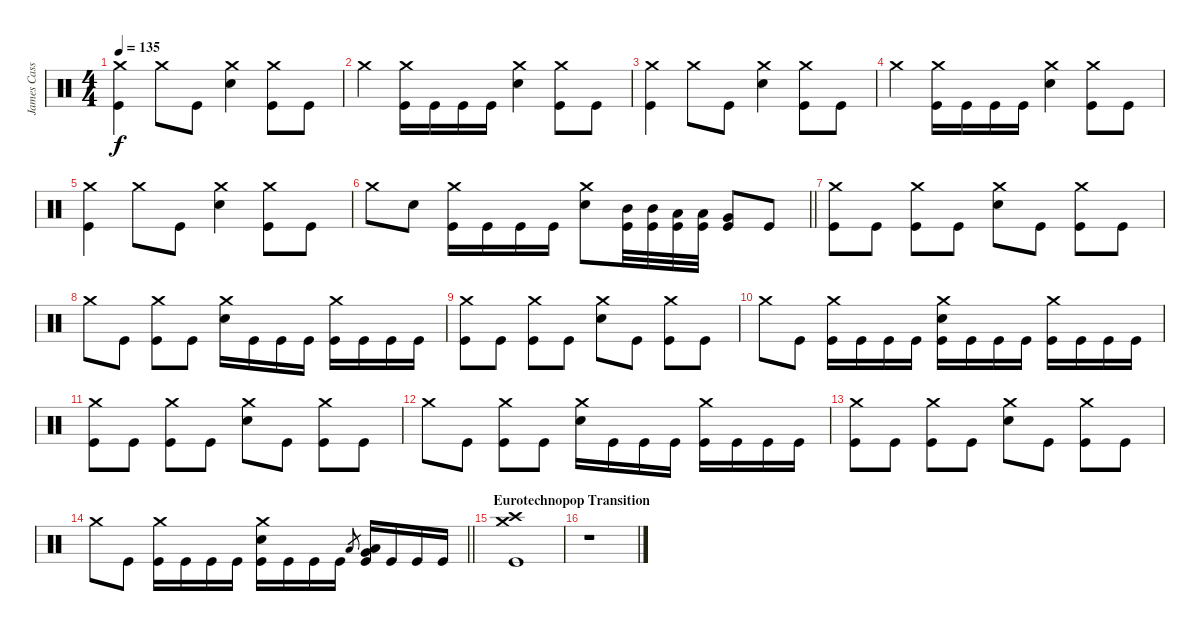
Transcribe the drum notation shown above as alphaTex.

\track ("James Cassells" "James Cass") {instrument percussion}
\staff {score}
\articulation defaults
\ts (4 4)
\tempo 135
\clef neutral
\ks c
("Crash medium (hit)" "Kick (hit)").4{dy f} "Crash medium (hit)".8 "Kick (hit)".8 ("Crash medium (hit)" "Snare (hit) 2").4 ("Crash medium (hit)" "Kick (hit)").8 "Kick (hit)".8 |
"Crash medium (hit)".4 ("Crash medium (hit)" "Kick (hit)").16 "Kick (hit)".16 "Kick (hit)".16 "Kick (hit)".16 ("Crash medium (hit)" "Snare (hit) 2").4 ("Crash medium (hit)" "Kick (hit)").8 "Kick (hit)".8 |
("Crash medium (hit)" "Kick (hit)").4 "Crash medium (hit)".8 "Kick (hit)".8 ("Crash medium (hit)" "Snare (hit) 2").4 ("Crash medium (hit)" "Kick (hit)").8 "Kick (hit)".8 |
"Crash medium (hit)".4 ("Crash medium (hit)" "Kick (hit)").16 "Kick (hit)".16 "Kick (hit)".16 "Kick (hit)".16 ("Crash medium (hit)" "Snare (hit) 2").4 ("Crash medium (hit)" "Kick (hit)").8 "Kick (hit)".8 |
("Crash medium (hit)" "Kick (hit)").4 "Crash medium (hit)".8 "Kick (hit)".8 ("Crash medium (hit)" "Snare (hit) 2").4 ("Crash medium (hit)" "Kick (hit)").8 "Kick (hit)".8 |
\barLineRight lightlight "Crash medium (hit)".8 "Snare (hit) 2".8
("Crash medium (hit)" "Kick (hit)").16 "Kick (hit)".16 "Kick (hit)".16 "Kick (hit)".16 ("Crash medium (hit)" "Snare (hit) 2").8 ("Mid Tom (hit)" "Kick (hit)").32 ("Mid Tom (hit)" "Kick (hit)").32 ("Low Tom (hit)" "Kick (hit)").32 ("Low Tom (hit)" "Kick (hit)").32 ("Very Low Tom (hit)" "Kick (hit)").8 "Kick (hit)".8 |
("Crash medium (hit)" "Kick (hit)").8 "Kick (hit)".8 ("Crash medium (hit)" "Kick (hit)").8 "Kick (hit)".8 ("Crash medium (hit)" "Snare (hit) 2").8 "Kick (hit)".8 ("Crash medium (hit)" "Kick (hit)").8 "Kick (hit)".8 |
"Crash medium (hit)".8 "Kick (hit)".8 ("Crash medium (hit)" "Kick (hit)").8 "Kick (hit)".8 ("Crash medium (hit)" "Snare (hit) 2").16 "Kick (hit)".16 "Kick (hit)".16 "Kick (hit)".16 ("Crash medium (hit)" "Kick (hit)").16 "Kick (hit)".16 "Kick (hit)".16 "Kick (hit)".16 |
("Crash medium (hit)" "Kick (hit)").8 "Kick (hit)".8 ("Crash medium (hit)" "Kick (hit)").8 "Kick (hit)".8 ("Crash medium (hit)" "Snare (hit) 2").8 "Kick (hit)".8 ("Crash medium (hit)" "Kick (hit)").8 "Kick (hit)".8 |
"Crash medium (hit)".8 "Kick (hit)".8 ("Crash medium (hit)" "Kick (hit)").16 "Kick (hit)".16 "Kick (hit)".16 "Kick (hit)".16 ("Crash medium (hit)" "Snare (hit) 2" "Kick (hit)").16 "Kick (hit)".16 "Kick (hit)".16 "Kick (hit)".16 ("Crash medium (hit)" "Kick (hit)").16 "Kick (hit)".16 "Kick (hit)".16 "Kick (hit)".16 |
("Crash medium (hit)" "Kick (hit)").8 "Kick (hit)".8 ("Crash medium (hit)" "Kick (hit)").8 "Kick (hit)".8 ("Crash medium (hit)" "Snare (hit) 2").8 "Kick (hit)".8 ("Crash medium (hit)" "Kick (hit)").8 "Kick (hit)".8 |
"Crash medium (hit)".8 "Kick (hit)".8 ("Crash medium (hit)" "Kick (hit)").8 "Kick (hit)".8 ("Crash medium (hit)" "Snare (hit) 2").16 "Kick (hit)".16 "Kick (hit)".16 "Kick (hit)".16 ("Crash medium (hit)" "Kick (hit)").16 "Kick (hit)".16 "Kick (hit)".16 "Kick (hit)".16 |
("Crash medium (hit)" "Kick (hit)").8 "Kick (hit)".8 ("Crash medium (hit)" "Kick (hit)").8 "Kick (hit)".8 ("Crash medium (hit)" "Snare (hit) 2").8 "Kick (hit)".8 ("Crash medium (hit)" "Kick (hit)").8 "Kick (hit)".8 |
\barLineRight lightlight "Crash medium (hit)".8 "Kick (hit)".8
("Crash medium (hit)" "Kick (hit)").16 "Kick (hit)".16 "Kick (hit)".16 "Kick (hit)".16 ("Crash medium (hit)" "Snare (hit) 2" "Kick (hit)").16 "Kick (hit)".16 "Kick (hit)".16 "Kick (hit)".16 "Low Tom (hit)".8{gr} ("Low Tom (hit)" "Very Low Tom (hit)" "Kick (hit)").16 "Kick (hit)".16 "Kick (hit)".16 "Kick (hit)".16 |
\section ("" "Eurotechnopop Transition")
("Crash medium (hit)" "Crash high (hit)" "Kick (hit)").1 |
r.1
